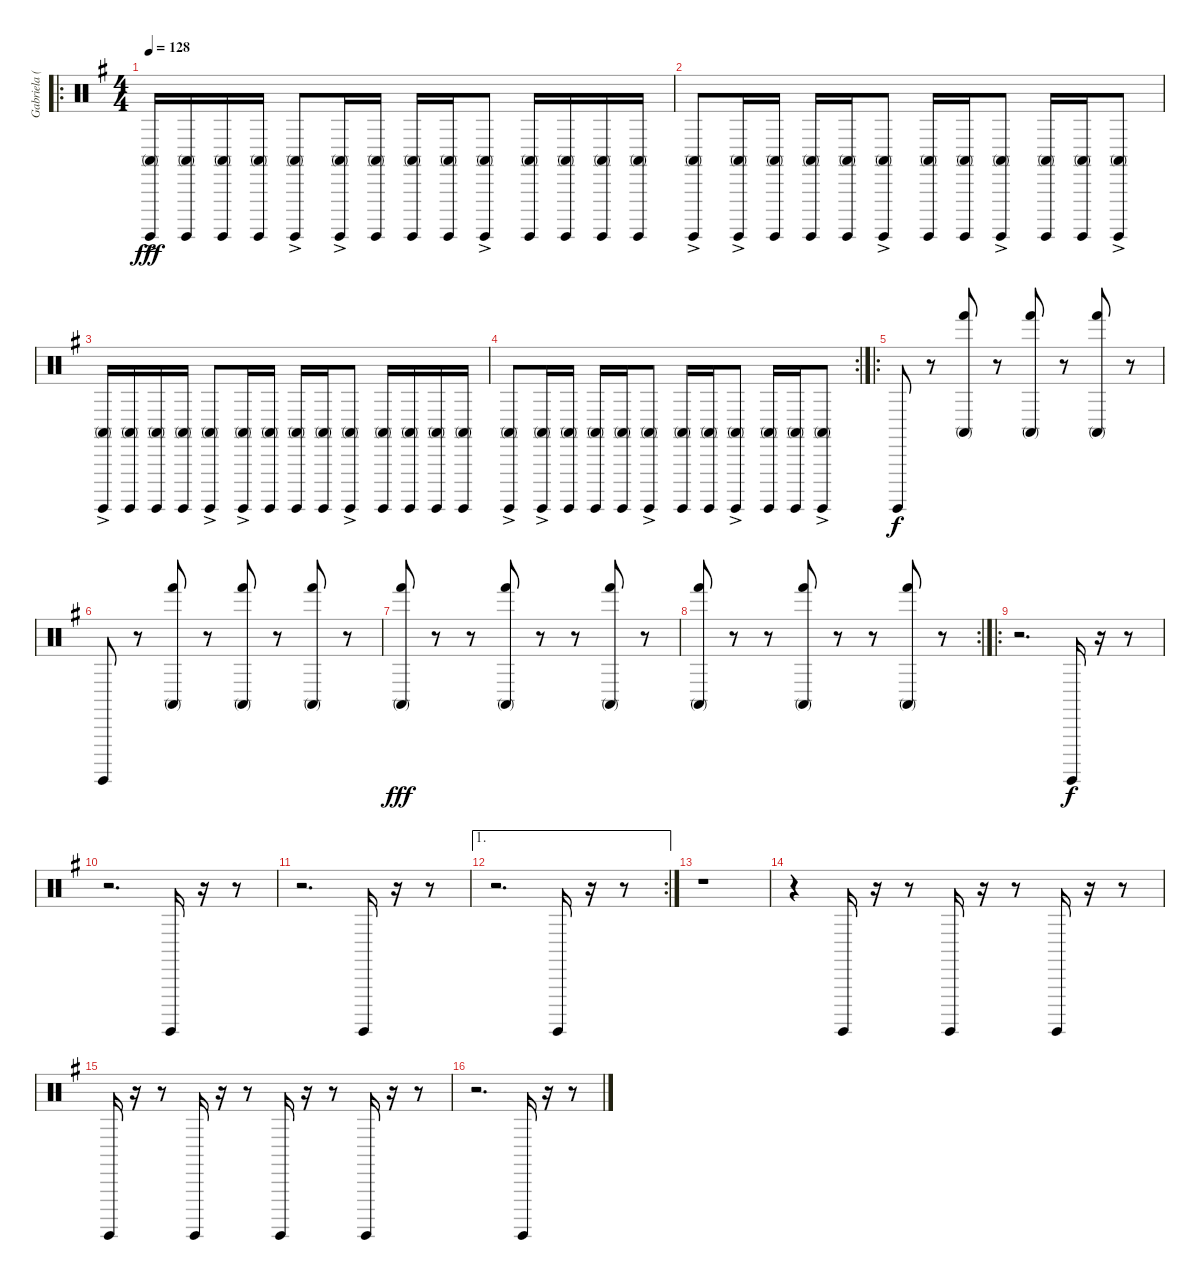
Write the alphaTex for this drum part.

\track ("Gabriela (Percussion)" "Gabriela (") {instrument percussion}
\staff {score}
\articulation defaults
\ro
\ts (4 4)
\tempo 128
\clef neutral
\ks eminor
("Conga high (mute)"{ac} "Surdo (hit)"{ac}).16{dy fff} ("Conga high (mute)" "Surdo (hit)").16 ("Conga high (mute)" "Surdo (hit)").16 ("Conga high (mute)" "Surdo (hit)").16 ("Conga high (mute)"{ac} "Surdo (hit)"{ac}).8 ("Conga high (mute)"{ac} "Surdo (hit)"{ac}).16 ("Conga high (mute)" "Surdo (hit)").16 ("Conga high (mute)" "Surdo (hit)").16 ("Conga high (mute)" "Surdo (hit)").16 ("Conga high (mute)"{ac} "Surdo (hit)"{ac}).8 ("Conga high (mute)" "Surdo (hit)").16 ("Conga high (mute)" "Surdo (hit)").16 ("Conga high (mute)" "Surdo (hit)").16 ("Conga high (mute)" "Surdo (hit)").16 |
("Conga high (mute)"{ac} "Surdo (hit)"{ac}).8 ("Conga high (mute)"{ac} "Surdo (hit)"{ac}).16 ("Conga high (mute)" "Surdo (hit)").16 ("Conga high (mute)" "Surdo (hit)").16 ("Conga high (mute)" "Surdo (hit)").16 ("Conga high (mute)"{ac} "Surdo (hit)"{ac}).8 ("Conga high (mute)" "Surdo (hit)").16 ("Conga high (mute)" "Surdo (hit)").16 ("Conga high (mute)"{ac} "Surdo (hit)"{ac}).8 ("Conga high (mute)" "Surdo (hit)").16 ("Conga high (mute)" "Surdo (hit)").16 ("Conga high (mute)"{ac} "Surdo (hit)"{ac}).8 |
("Conga high (mute)"{ac} "Surdo (hit)"{ac}).16 ("Conga high (mute)" "Surdo (hit)").16 ("Conga high (mute)" "Surdo (hit)").16 ("Conga high (mute)" "Surdo (hit)").16 ("Conga high (mute)"{ac} "Surdo (hit)"{ac}).8 ("Conga high (mute)"{ac} "Surdo (hit)"{ac}).16 ("Conga high (mute)" "Surdo (hit)").16 ("Conga high (mute)" "Surdo (hit)").16 ("Conga high (mute)" "Surdo (hit)").16 ("Conga high (mute)"{ac} "Surdo (hit)"{ac}).8 ("Conga high (mute)" "Surdo (hit)").16 ("Conga high (mute)" "Surdo (hit)").16 ("Conga high (mute)" "Surdo (hit)").16 ("Conga high (mute)" "Surdo (hit)").16 |
\rc 2
("Conga high (mute)"{ac} "Surdo (hit)"{ac}).8 ("Conga high (mute)"{ac} "Surdo (hit)"{ac}).16 ("Conga high (mute)" "Surdo (hit)").16 ("Conga high (mute)" "Surdo (hit)").16 ("Conga high (mute)" "Surdo (hit)").16 ("Conga high (mute)"{ac} "Surdo (hit)"{ac}).8 ("Conga high (mute)" "Surdo (hit)").16 ("Conga high (mute)" "Surdo (hit)").16 ("Conga high (mute)"{ac} "Surdo (hit)"{ac}).8 ("Conga high (mute)" "Surdo (hit)").16 ("Conga high (mute)" "Surdo (hit)").16 ("Conga high (mute)"{ac} "Surdo (hit)"{ac}).8 |
\ro "Surdo (hit)".8{dy f}
r.8 ("Conga high (mute)" "Hand (hit)").8 r.8 ("Conga high (mute)" "Hand (hit)").8 r.8 ("Conga high (mute)" "Hand (hit)").8 r.8 |
"Surdo (hit)".8 r.8 ("Conga high (mute)" "Hand (hit)").8 r.8 ("Conga high (mute)" "Hand (hit)").8 r.8 ("Conga high (mute)" "Hand (hit)").8 r.8 |
("Conga high (mute)" "Hand (hit)").8{dy fff} r.8{beam merge} r.8 ("Conga high (mute)" "Hand (hit)").8 r.8{beam merge} r.8 ("Conga high (mute)" "Hand (hit)").8 r.8 |
\rc 2
("Conga high (mute)" "Hand (hit)").8 r.8{beam merge} r.8 ("Conga high (mute)" "Hand (hit)").8 r.8{beam merge} r.8 ("Conga high (mute)" "Hand (hit)").8 r.8 |
\ro
r.2{d} "Surdo (hit)".16{dy f} r.16 r.8 |
r.2{d} "Surdo (hit)".16 r.16 r.8 |
r.2{d} "Surdo (hit)".16 r.16 r.8 |
\ae 1
\rc 2
r.2{d} "Surdo (hit)".16 r.16 r.8 |
r.1 |
r.4 "Surdo (hit)".16 r.16 r.8 "Surdo (hit)".16 r.16 r.8 "Surdo (hit)".16 r.16 r.8 |
"Surdo (hit)".16 r.16 r.8 "Surdo (hit)".16 r.16 r.8 "Surdo (hit)".16 r.16 r.8 "Surdo (hit)".16 r.16 r.8 |
r.2{d} "Surdo (hit)".16 r.16 r.8
